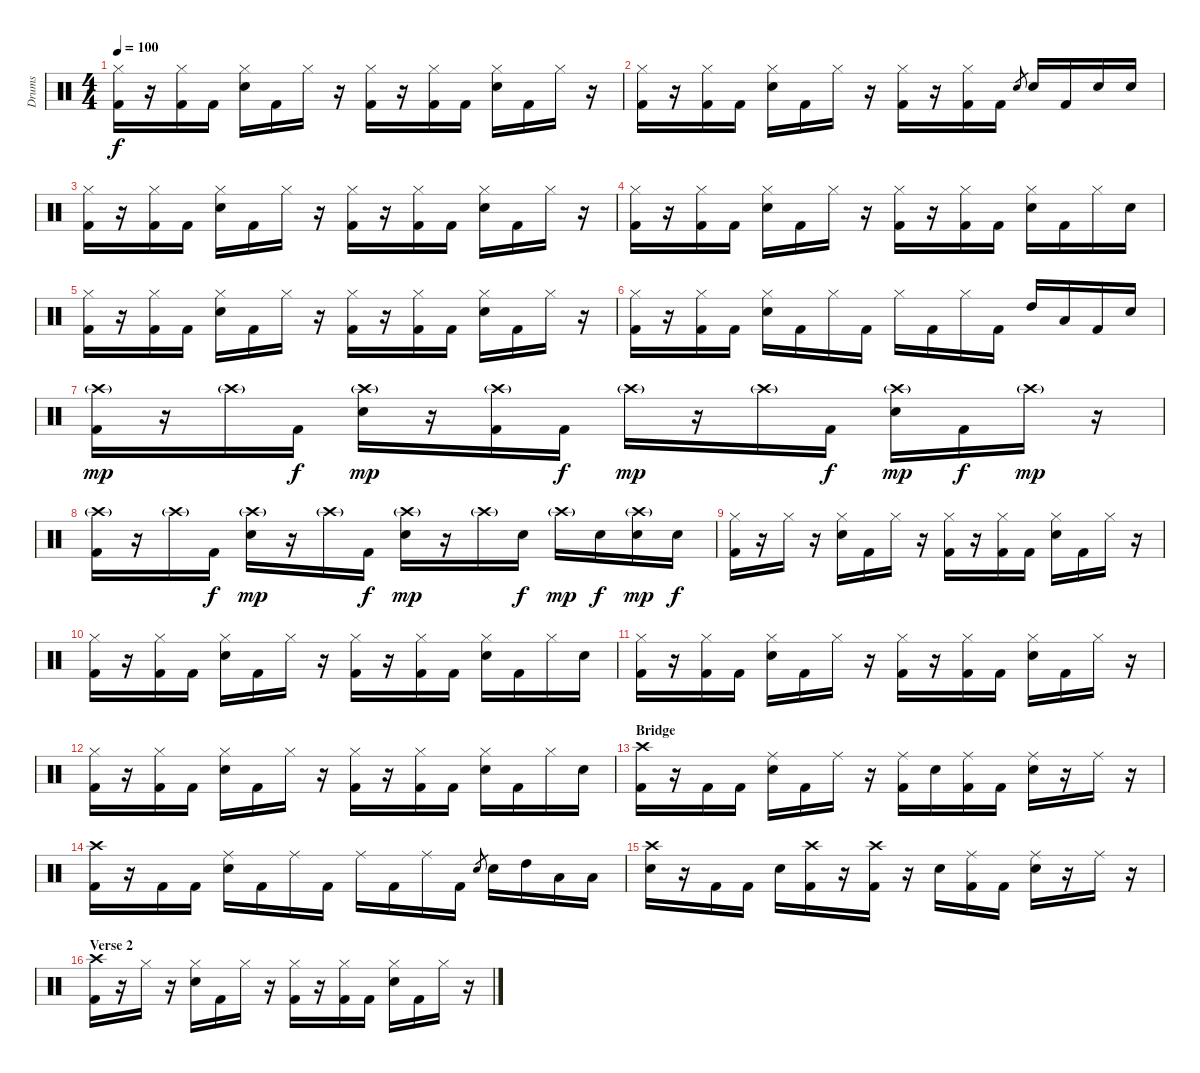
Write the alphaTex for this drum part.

\track ("Drums" "Drums") {instrument percussion}
\staff {score}
\articulation defaults
\ts (4 4)
\tempo 100
\clef neutral
\ks c
("Hi-Hat (closed)" "Kick (hit) 2").16{dy f} r.16 ("Hi-Hat (closed)" "Kick (hit) 2").16 "Kick (hit) 2".16 ("Hi-Hat (closed)" "Electric Snare (hit)").16 "Kick (hit) 2".16 "Hi-Hat (closed)".16 r.16 ("Hi-Hat (closed)" "Kick (hit) 2").16 r.16 ("Hi-Hat (closed)" "Kick (hit) 2").16 "Kick (hit) 2".16 ("Hi-Hat (closed)" "Electric Snare (hit)").16 "Kick (hit) 2".16 "Hi-Hat (closed)".16 r.16 |
("Hi-Hat (closed)" "Kick (hit) 2").16 r.16 ("Hi-Hat (closed)" "Kick (hit) 2").16 "Kick (hit) 2".16 ("Hi-Hat (closed)" "Electric Snare (hit)").16 "Kick (hit) 2".16 "Hi-Hat (closed)".16 r.16 ("Hi-Hat (closed)" "Kick (hit) 2").16 r.16 ("Hi-Hat (closed)" "Kick (hit) 2").16 "Kick (hit) 2".16 "Electric Snare (hit)".8{gr} "Electric Snare (hit)".16 "Kick (hit) 2".16 "Electric Snare (hit)".16 "Electric Snare (hit)".16 |
("Hi-Hat (closed)" "Kick (hit) 2").16 r.16 ("Hi-Hat (closed)" "Kick (hit) 2").16 "Kick (hit) 2".16 ("Hi-Hat (closed)" "Electric Snare (hit)").16 "Kick (hit) 2".16 "Hi-Hat (closed)".16 r.16 ("Hi-Hat (closed)" "Kick (hit) 2").16 r.16 ("Hi-Hat (closed)" "Kick (hit) 2").16 "Kick (hit) 2".16 ("Hi-Hat (closed)" "Electric Snare (hit)").16 "Kick (hit) 2".16 "Hi-Hat (closed)".16 r.16 |
("Hi-Hat (closed)" "Kick (hit) 2").16 r.16 ("Hi-Hat (closed)" "Kick (hit) 2").16 "Kick (hit) 2".16 ("Hi-Hat (closed)" "Electric Snare (hit)").16 "Kick (hit) 2".16 "Hi-Hat (closed)".16 r.16 ("Hi-Hat (closed)" "Kick (hit) 2").16 r.16 ("Hi-Hat (closed)" "Kick (hit) 2").16 "Kick (hit) 2".16 ("Hi-Hat (closed)" "Electric Snare (hit)").16 "Kick (hit) 2".16 "Hi-Hat (closed)".16 "Electric Snare (hit)".16 |
("Hi-Hat (closed)" "Kick (hit) 2").16 r.16 ("Hi-Hat (closed)" "Kick (hit) 2").16 "Kick (hit) 2".16 ("Hi-Hat (closed)" "Electric Snare (hit)").16 "Kick (hit) 2".16 "Hi-Hat (closed)".16 r.16 ("Hi-Hat (closed)" "Kick (hit) 2").16 r.16 ("Hi-Hat (closed)" "Kick (hit) 2").16 "Kick (hit) 2".16 ("Hi-Hat (closed)" "Electric Snare (hit)").16 "Kick (hit) 2".16 "Hi-Hat (closed)".16 r.16 |
("Hi-Hat (closed)" "Kick (hit) 2").16 r.16 ("Hi-Hat (closed)" "Kick (hit) 2").16 "Kick (hit) 2".16 ("Hi-Hat (closed)" "Electric Snare (hit)").16 "Kick (hit) 2".16 "Hi-Hat (closed)".16 "Kick (hit) 2".16 "Hi-Hat (closed)".16 "Kick (hit) 2".16 "Hi-Hat (closed)".16 "Kick (hit) 2".16 "High Tom (hit)".16 "Low Tom (hit)".16 "Kick (hit) 2".16 "Electric Snare (hit)".16 |
("Crash high (hit)"{g} "Kick (hit) 2").16{dy mp} r.16 "Crash high (hit)"{g}.16 "Kick (hit) 2".16{dy f} ("Crash high (hit)"{g} "Electric Snare (hit)").16{dy mp} r.16 ("Crash high (hit)"{g} "Kick (hit) 2").16 "Kick (hit) 2".16{dy f} "Crash high (hit)"{g}.16{dy mp} r.16 "Crash high (hit)"{g}.16 "Kick (hit) 2".16{dy f} ("Crash high (hit)"{g} "Electric Snare (hit)").16{dy mp} "Kick (hit) 2".16{dy f} "Crash high (hit)"{g}.16{dy mp} r.16 |
("Crash high (hit)"{g} "Kick (hit) 2").16 r.16 "Crash high (hit)"{g}.16 "Kick (hit) 2".16{dy f} ("Crash high (hit)"{g} "Electric Snare (hit)").16{dy mp} r.16 "Crash high (hit)"{g}.16 "Kick (hit) 2".16{dy f} ("Crash high (hit)"{g} "Electric Snare (hit)").16{dy mp} r.16 "Crash high (hit)"{g}.16 "Electric Snare (hit)".16{dy f} "Crash high (hit)"{g}.16{dy mp} "Electric Snare (hit)".16{dy f} ("Crash high (hit)"{g} "Electric Snare (hit)").16{dy mp} "Electric Snare (hit)".16{dy f} |
("Hi-Hat (closed)" "Kick (hit) 2").16 r.16 "Hi-Hat (closed)".16 r.16 ("Hi-Hat (closed)" "Electric Snare (hit)").16 "Kick (hit) 2".16 "Hi-Hat (closed)".16 r.16 ("Hi-Hat (closed)" "Kick (hit) 2").16 r.16 ("Hi-Hat (closed)" "Kick (hit) 2").16 "Kick (hit) 2".16 ("Hi-Hat (closed)" "Electric Snare (hit)").16 "Kick (hit) 2".16 "Hi-Hat (closed)".16 r.16 |
("Hi-Hat (closed)" "Kick (hit) 2").16 r.16 ("Hi-Hat (closed)" "Kick (hit) 2").16 "Kick (hit) 2".16 ("Hi-Hat (closed)" "Electric Snare (hit)").16 "Kick (hit) 2".16 "Hi-Hat (closed)".16 r.16 ("Hi-Hat (closed)" "Kick (hit) 2").16 r.16 ("Hi-Hat (closed)" "Kick (hit) 2").16 "Kick (hit) 2".16 ("Hi-Hat (closed)" "Electric Snare (hit)").16 "Kick (hit) 2".16 "Hi-Hat (closed)".16 "Electric Snare (hit)".16 |
("Hi-Hat (closed)" "Kick (hit) 2").16 r.16 ("Hi-Hat (closed)" "Kick (hit) 2").16 "Kick (hit) 2".16 ("Hi-Hat (closed)" "Electric Snare (hit)").16 "Kick (hit) 2".16 "Hi-Hat (closed)".16 r.16 ("Hi-Hat (closed)" "Kick (hit) 2").16 r.16 ("Hi-Hat (closed)" "Kick (hit) 2").16 "Kick (hit) 2".16 ("Hi-Hat (closed)" "Electric Snare (hit)").16 "Kick (hit) 2".16 "Hi-Hat (closed)".16 r.16 |
("Hi-Hat (closed)" "Kick (hit) 2").16 r.16 ("Hi-Hat (closed)" "Kick (hit) 2").16 "Kick (hit) 2".16 ("Hi-Hat (closed)" "Electric Snare (hit)").16 "Kick (hit) 2".16 "Hi-Hat (closed)".16 r.16 ("Hi-Hat (closed)" "Kick (hit) 2").16 r.16 ("Hi-Hat (closed)" "Kick (hit) 2").16 "Kick (hit) 2".16 ("Hi-Hat (closed)" "Electric Snare (hit)").16 "Kick (hit) 2".16 "Hi-Hat (closed)".16 "Electric Snare (hit)".16 |
\section ("" "Bridge")
("Crash high (hit)" "Kick (hit) 2").16 r.16 "Kick (hit) 2".16 "Kick (hit) 2".16 ("Ride (middle)" "Electric Snare (hit)").16 "Kick (hit) 2".16 "Ride (middle)".16 r.16 ("Ride (middle)" "Kick (hit) 2").16 "Electric Snare (hit)".16 ("Ride (middle)" "Kick (hit) 2").16 "Kick (hit) 2".16 ("Ride (middle)" "Electric Snare (hit)").16 r.16 "Ride (middle)".16 r.16 |
("Crash high (hit)" "Kick (hit) 2").16 r.16 "Kick (hit) 2".16 "Kick (hit) 2".16 ("Ride (middle)" "Electric Snare (hit)").16 "Kick (hit) 2".16 "Ride (middle)".16 "Kick (hit) 2".16 "Ride (middle)".16 "Kick (hit) 2".16 "Ride (middle)".16 "Kick (hit) 2".16 "Electric Snare (hit)".8{gr} "Electric Snare (hit)".16 "High Tom (hit)".16 "Low Tom (hit)".16 "Low Tom (hit)".16 |
("Crash high (hit)" "Electric Snare (hit)").16 r.16 "Kick (hit) 2".16 "Kick (hit) 2".16 "Electric Snare (hit)".16 ("Crash high (hit)" "Kick (hit) 2").16 r.16 ("Crash high (hit)" "Kick (hit) 2").16 r.16 "Electric Snare (hit)".16 ("Ride (middle)" "Kick (hit) 2").16 "Kick (hit) 2".16 ("Ride (middle)" "Electric Snare (hit)").16 r.16 "Ride (middle)".16 r.16 |
\section ("" "Verse 2")
("Crash high (hit)" "Kick (hit) 2").16 r.16 "Hi-Hat (closed)".16 r.16 ("Hi-Hat (closed)" "Electric Snare (hit)").16 "Kick (hit) 2".16 "Hi-Hat (closed)".16 r.16 ("Hi-Hat (closed)" "Kick (hit) 2").16 r.16 ("Hi-Hat (closed)" "Kick (hit) 2").16 "Kick (hit) 2".16 ("Hi-Hat (closed)" "Electric Snare (hit)").16 "Kick (hit) 2".16 "Hi-Hat (closed)".16 r.16
